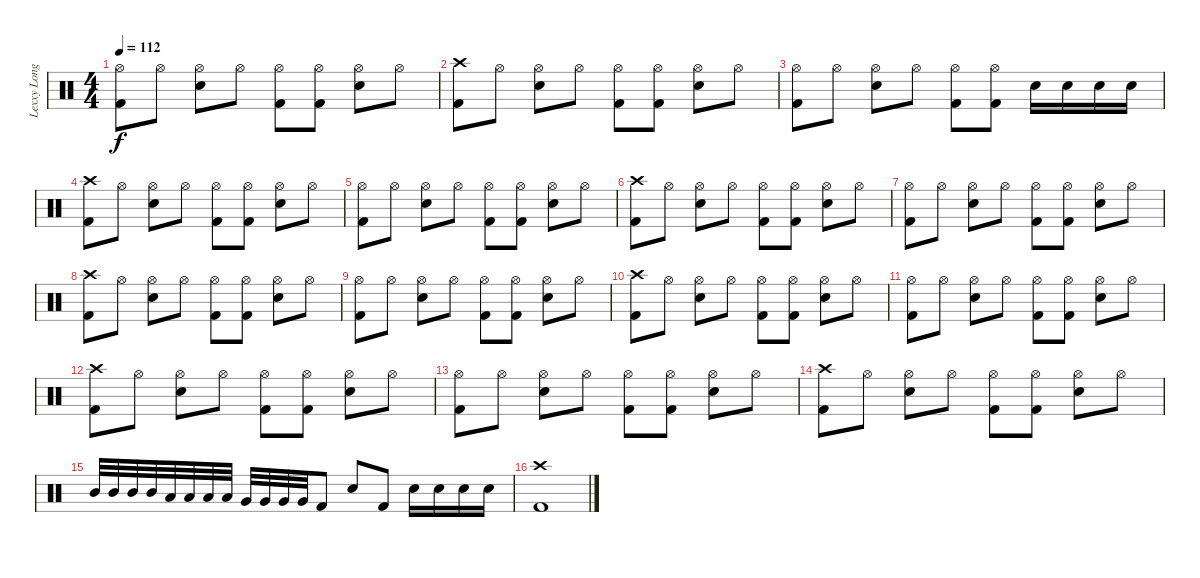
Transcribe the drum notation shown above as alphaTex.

\track ("Lexxy Longlegz (Chuto)" "Lexxy Long") {instrument percussion}
\staff {score}
\articulation defaults
\ts (4 4)
\tempo 112
\clef neutral
\ks c
("Hi-Hat (open)" "Kick (hit) 2").8{dy f} "Hi-Hat (open)".8 ("Hi-Hat (open)" "Snare (hit) 2").8 "Hi-Hat (open)".8 ("Hi-Hat (open)" "Kick (hit) 2").8 ("Hi-Hat (open)" "Kick (hit) 2").8 ("Hi-Hat (open)" "Snare (hit) 2").8 "Hi-Hat (open)".8 |
("Crash high (hit)" "Kick (hit) 2").8 "Hi-Hat (open)".8 ("Hi-Hat (open)" "Snare (hit) 2").8 "Hi-Hat (open)".8 ("Hi-Hat (open)" "Kick (hit) 2").8 ("Hi-Hat (open)" "Kick (hit) 2").8 ("Hi-Hat (open)" "Snare (hit) 2").8 "Hi-Hat (open)".8 |
("Hi-Hat (open)" "Kick (hit) 2").8 "Hi-Hat (open)".8 ("Hi-Hat (open)" "Snare (hit) 2").8 "Hi-Hat (open)".8 ("Hi-Hat (open)" "Kick (hit) 2").8 ("Hi-Hat (open)" "Kick (hit) 2").8 "Snare (hit) 2".16 "Snare (hit) 2".16 "Snare (hit) 2".16 "Snare (hit) 2".16 |
("Crash high (hit)" "Kick (hit) 2").8 "Hi-Hat (open)".8 ("Hi-Hat (open)" "Snare (hit) 2").8 "Hi-Hat (open)".8 ("Hi-Hat (open)" "Kick (hit) 2").8 ("Hi-Hat (open)" "Kick (hit) 2").8 ("Hi-Hat (open)" "Snare (hit) 2").8 "Hi-Hat (open)".8 |
("Hi-Hat (open)" "Kick (hit) 2").8 "Hi-Hat (open)".8 ("Hi-Hat (open)" "Snare (hit) 2").8 "Hi-Hat (open)".8 ("Hi-Hat (open)" "Kick (hit) 2").8 ("Hi-Hat (open)" "Kick (hit) 2").8 ("Hi-Hat (open)" "Snare (hit) 2").8 "Hi-Hat (open)".8 |
("Crash high (hit)" "Kick (hit) 2").8 "Hi-Hat (open)".8 ("Hi-Hat (open)" "Snare (hit) 2").8 "Hi-Hat (open)".8 ("Hi-Hat (open)" "Kick (hit) 2").8 ("Hi-Hat (open)" "Kick (hit) 2").8 ("Hi-Hat (open)" "Snare (hit) 2").8 "Hi-Hat (open)".8 |
("Hi-Hat (open)" "Kick (hit) 2").8 "Hi-Hat (open)".8 ("Hi-Hat (open)" "Snare (hit) 2").8 "Hi-Hat (open)".8 ("Hi-Hat (open)" "Kick (hit) 2").8 ("Hi-Hat (open)" "Kick (hit) 2").8 ("Hi-Hat (open)" "Snare (hit) 2").8 "Hi-Hat (open)".8 |
("Crash high (hit)" "Kick (hit) 2").8 "Hi-Hat (open)".8 ("Hi-Hat (open)" "Snare (hit) 2").8 "Hi-Hat (open)".8 ("Hi-Hat (open)" "Kick (hit) 2").8 ("Hi-Hat (open)" "Kick (hit) 2").8 ("Hi-Hat (open)" "Snare (hit) 2").8 "Hi-Hat (open)".8 |
("Hi-Hat (open)" "Kick (hit) 2").8 "Hi-Hat (open)".8 ("Hi-Hat (open)" "Snare (hit) 2").8 "Hi-Hat (open)".8 ("Hi-Hat (open)" "Kick (hit) 2").8 ("Hi-Hat (open)" "Kick (hit) 2").8 ("Hi-Hat (open)" "Snare (hit) 2").8 "Hi-Hat (open)".8 |
("Crash high (hit)" "Kick (hit) 2").8 "Hi-Hat (open)".8 ("Hi-Hat (open)" "Snare (hit) 2").8 "Hi-Hat (open)".8 ("Hi-Hat (open)" "Kick (hit) 2").8 ("Hi-Hat (open)" "Kick (hit) 2").8 ("Hi-Hat (open)" "Snare (hit) 2").8 "Hi-Hat (open)".8 |
("Hi-Hat (open)" "Kick (hit) 2").8 "Hi-Hat (open)".8 ("Hi-Hat (open)" "Snare (hit) 2").8 "Hi-Hat (open)".8 ("Hi-Hat (open)" "Kick (hit) 2").8 ("Hi-Hat (open)" "Kick (hit) 2").8 ("Hi-Hat (open)" "Snare (hit) 2").8 "Hi-Hat (open)".8 |
("Crash high (hit)" "Kick (hit) 2").8 "Hi-Hat (open)".8 ("Hi-Hat (open)" "Snare (hit) 2").8 "Hi-Hat (open)".8 ("Hi-Hat (open)" "Kick (hit) 2").8 ("Hi-Hat (open)" "Kick (hit) 2").8 ("Hi-Hat (open)" "Snare (hit) 2").8 "Hi-Hat (open)".8 |
("Hi-Hat (open)" "Kick (hit) 2").8 "Hi-Hat (open)".8 ("Hi-Hat (open)" "Snare (hit) 2").8 "Hi-Hat (open)".8 ("Hi-Hat (open)" "Kick (hit) 2").8 ("Hi-Hat (open)" "Kick (hit) 2").8 ("Hi-Hat (open)" "Snare (hit) 2").8 "Hi-Hat (open)".8 |
("Crash high (hit)" "Kick (hit) 2").8 "Hi-Hat (open)".8 ("Hi-Hat (open)" "Snare (hit) 2").8 "Hi-Hat (open)".8 ("Hi-Hat (open)" "Kick (hit) 2").8 ("Hi-Hat (open)" "Kick (hit) 2").8 ("Hi-Hat (open)" "Snare (hit) 2").8 "Hi-Hat (open)".8 |
"Mid Tom (hit)".32 "Mid Tom (hit)".32 "Mid Tom (hit)".32 "Mid Tom (hit)".32 "Low Tom (hit)".32 "Low Tom (hit)".32 "Low Tom (hit)".32 "Low Tom (hit)".32 "Very Low Tom (hit)".32 "Very Low Tom (hit)".32 "Very Low Tom (hit)".32 "Very Low Tom (hit)".32 "Kick (hit) 2".8 "Snare (hit) 2".8 "Kick (hit) 2".8 "Snare (hit) 2".16 "Snare (hit) 2".16 "Snare (hit) 2".16 "Snare (hit) 2".16 |
("Crash high (hit)" "Kick (hit) 2").1
